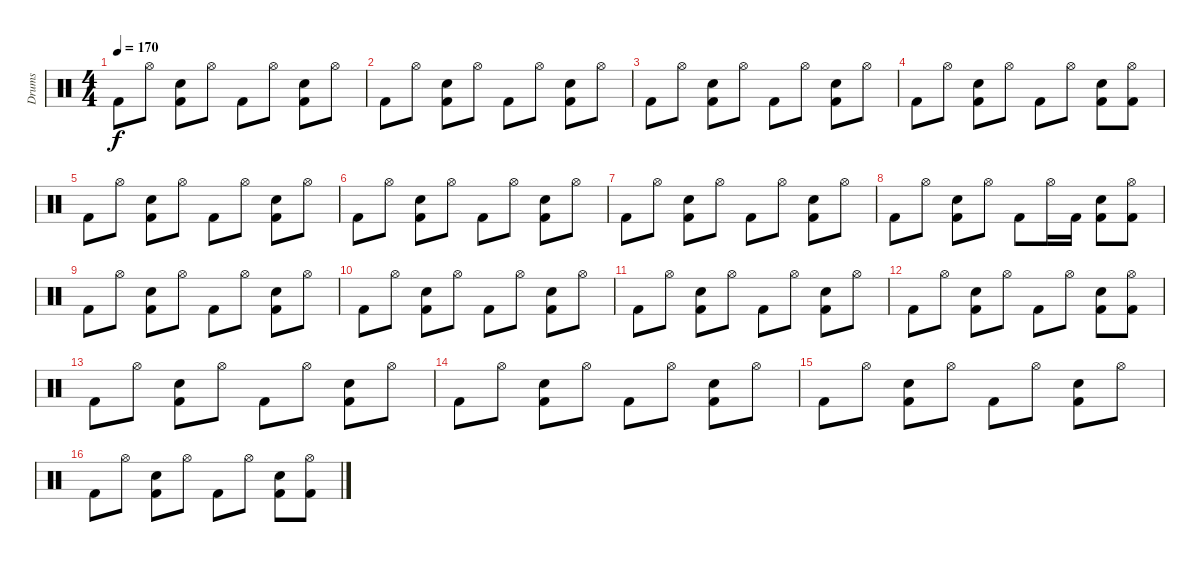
\track ("Drums" "Drums") {instrument percussion}
\staff {score}
\articulation defaults
\ts (4 4)
\tempo 170
\clef neutral
\ks c "Kick (hit) 2".8{dy f} "Hi-Hat (open)".8
("Snare (hit) 2" "Kick (hit) 2").8 "Hi-Hat (open)".8 "Kick (hit) 2".8 "Hi-Hat (open)".8 ("Snare (hit) 2" "Kick (hit) 2").8 "Hi-Hat (open)".8 |
"Kick (hit) 2".8 "Hi-Hat (open)".8 ("Snare (hit) 2" "Kick (hit) 2").8 "Hi-Hat (open)".8 "Kick (hit) 2".8 "Hi-Hat (open)".8 ("Snare (hit) 2" "Kick (hit) 2").8 "Hi-Hat (open)".8 |
"Kick (hit) 2".8 "Hi-Hat (open)".8 ("Snare (hit) 2" "Kick (hit) 2").8 "Hi-Hat (open)".8 "Kick (hit) 2".8 "Hi-Hat (open)".8 ("Snare (hit) 2" "Kick (hit) 2").8 "Hi-Hat (open)".8 |
"Kick (hit) 2".8 "Hi-Hat (open)".8 ("Snare (hit) 2" "Kick (hit) 2").8 "Hi-Hat (open)".8 "Kick (hit) 2".8 "Hi-Hat (open)".8 ("Snare (hit) 2" "Kick (hit) 2").8 ("Hi-Hat (open)" "Kick (hit) 2").8 |
"Kick (hit) 2".8 "Hi-Hat (open)".8 ("Snare (hit) 2" "Kick (hit) 2").8 "Hi-Hat (open)".8 "Kick (hit) 2".8 "Hi-Hat (open)".8 ("Snare (hit) 2" "Kick (hit) 2").8 "Hi-Hat (open)".8 |
"Kick (hit) 2".8 "Hi-Hat (open)".8 ("Snare (hit) 2" "Kick (hit) 2").8 "Hi-Hat (open)".8 "Kick (hit) 2".8 "Hi-Hat (open)".8 ("Snare (hit) 2" "Kick (hit) 2").8 "Hi-Hat (open)".8 |
"Kick (hit) 2".8 "Hi-Hat (open)".8 ("Snare (hit) 2" "Kick (hit) 2").8 "Hi-Hat (open)".8 "Kick (hit) 2".8 "Hi-Hat (open)".8 ("Snare (hit) 2" "Kick (hit) 2").8 "Hi-Hat (open)".8 |
"Kick (hit) 2".8 "Hi-Hat (open)".8 ("Snare (hit) 2" "Kick (hit) 2").8 "Hi-Hat (open)".8 "Kick (hit) 2".8 "Hi-Hat (open)".16 "Kick (hit) 2".16 ("Snare (hit) 2" "Kick (hit) 2").8 ("Hi-Hat (open)" "Kick (hit) 2").8 |
"Kick (hit) 2".8 "Hi-Hat (open)".8 ("Snare (hit) 2" "Kick (hit) 2").8 "Hi-Hat (open)".8 "Kick (hit) 2".8 "Hi-Hat (open)".8 ("Snare (hit) 2" "Kick (hit) 2").8 "Hi-Hat (open)".8 |
"Kick (hit) 2".8 "Hi-Hat (open)".8 ("Snare (hit) 2" "Kick (hit) 2").8 "Hi-Hat (open)".8 "Kick (hit) 2".8 "Hi-Hat (open)".8 ("Snare (hit) 2" "Kick (hit) 2").8 "Hi-Hat (open)".8 |
"Kick (hit) 2".8 "Hi-Hat (open)".8 ("Snare (hit) 2" "Kick (hit) 2").8 "Hi-Hat (open)".8 "Kick (hit) 2".8 "Hi-Hat (open)".8 ("Snare (hit) 2" "Kick (hit) 2").8 "Hi-Hat (open)".8 |
"Kick (hit) 2".8 "Hi-Hat (open)".8 ("Snare (hit) 2" "Kick (hit) 2").8 "Hi-Hat (open)".8 "Kick (hit) 2".8 "Hi-Hat (open)".8 ("Snare (hit) 2" "Kick (hit) 2").8 ("Hi-Hat (open)" "Kick (hit) 2").8 |
"Kick (hit) 2".8 "Hi-Hat (open)".8 ("Snare (hit) 2" "Kick (hit) 2").8 "Hi-Hat (open)".8 "Kick (hit) 2".8 "Hi-Hat (open)".8 ("Snare (hit) 2" "Kick (hit) 2").8 "Hi-Hat (open)".8 |
"Kick (hit) 2".8 "Hi-Hat (open)".8 ("Snare (hit) 2" "Kick (hit) 2").8 "Hi-Hat (open)".8 "Kick (hit) 2".8 "Hi-Hat (open)".8 ("Snare (hit) 2" "Kick (hit) 2").8 "Hi-Hat (open)".8 |
"Kick (hit) 2".8 "Hi-Hat (open)".8 ("Snare (hit) 2" "Kick (hit) 2").8 "Hi-Hat (open)".8 "Kick (hit) 2".8 "Hi-Hat (open)".8 ("Snare (hit) 2" "Kick (hit) 2").8 "Hi-Hat (open)".8 |
"Kick (hit) 2".8 "Hi-Hat (open)".8 ("Snare (hit) 2" "Kick (hit) 2").8 "Hi-Hat (open)".8 "Kick (hit) 2".8 "Hi-Hat (open)".8 ("Snare (hit) 2" "Kick (hit) 2").8 ("Hi-Hat (open)" "Kick (hit) 2").8
